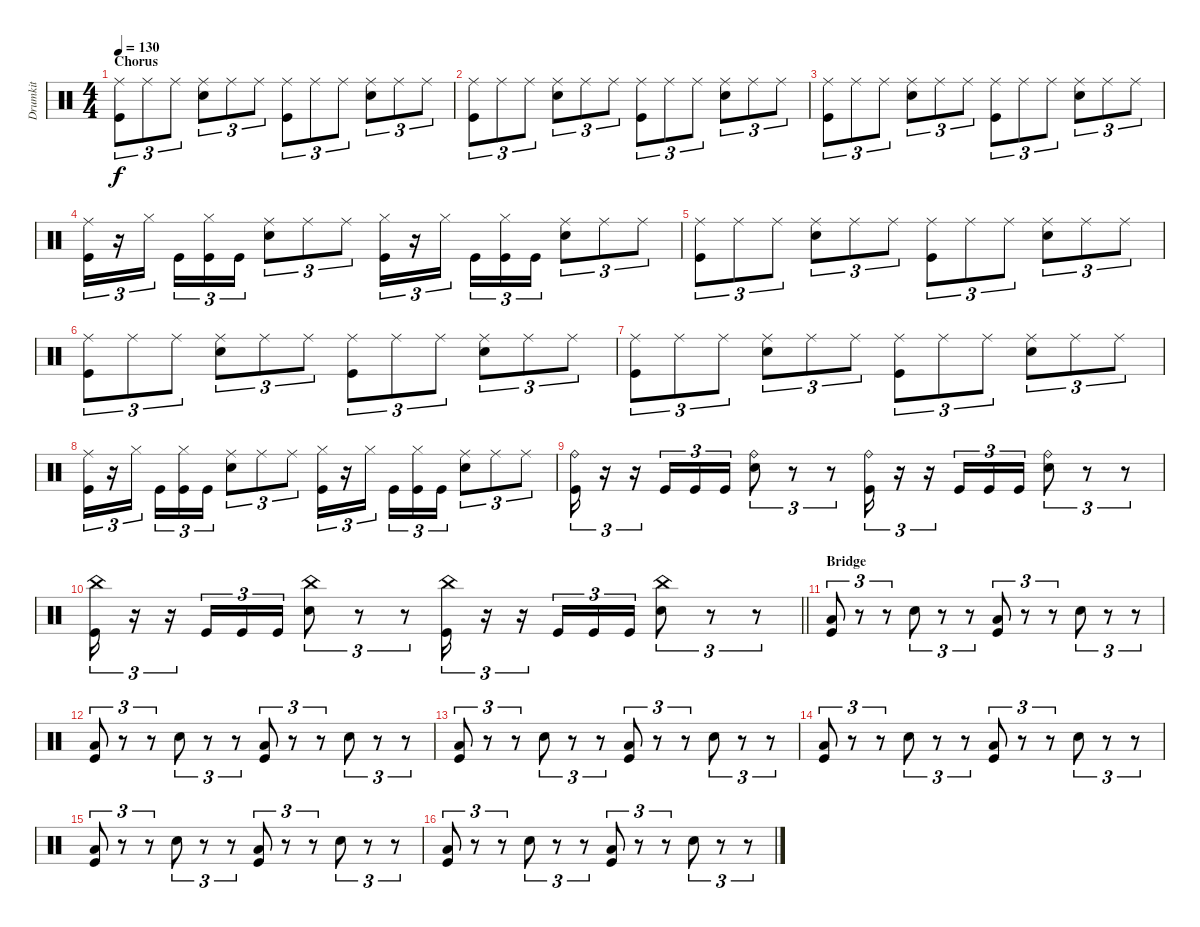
\track ("Drumkit" "Drumkit") {instrument percussion}
\staff {score}
\articulation defaults
\ts (4 4)
\section ("" "Chorus")
\tempo 130
\clef neutral
\ks c
("Kick (hit)" "Ride (middle)").8{tu (3 2) dy f} "Ride (middle)".8{tu (3 2)} "Ride (middle)".8{tu (3 2)} ("Snare (hit) 2" "Ride (middle)").8{tu (3 2)} "Ride (middle)".8{tu (3 2)} "Ride (middle)".8{tu (3 2)} ("Kick (hit)" "Ride (middle)").8{tu (3 2)} "Ride (middle)".8{tu (3 2)} "Ride (middle)".8{tu (3 2)} ("Snare (hit) 2" "Ride (middle)").8{tu (3 2)} "Ride (middle)".8{tu (3 2)} "Ride (middle)".8{tu (3 2)} |
("Kick (hit)" "Ride (middle)").8{tu (3 2)} "Ride (middle)".8{tu (3 2)} "Ride (middle)".8{tu (3 2)} ("Snare (hit) 2" "Ride (middle)").8{tu (3 2)} "Ride (middle)".8{tu (3 2)} "Ride (middle)".8{tu (3 2)} ("Kick (hit)" "Ride (middle)").8{tu (3 2)} "Ride (middle)".8{tu (3 2)} "Ride (middle)".8{tu (3 2)} ("Snare (hit) 2" "Ride (middle)").8{tu (3 2)} "Ride (middle)".8{tu (3 2)} "Ride (middle)".8{tu (3 2)} |
("Kick (hit)" "Ride (middle)").8{tu (3 2)} "Ride (middle)".8{tu (3 2)} "Ride (middle)".8{tu (3 2)} ("Snare (hit) 2" "Ride (middle)").8{tu (3 2)} "Ride (middle)".8{tu (3 2)} "Ride (middle)".8{tu (3 2)} ("Kick (hit)" "Ride (middle)").8{tu (3 2)} "Ride (middle)".8{tu (3 2)} "Ride (middle)".8{tu (3 2)} ("Snare (hit) 2" "Ride (middle)").8{tu (3 2)} "Ride (middle)".8{tu (3 2)} "Ride (middle)".8{tu (3 2)} |
("Kick (hit)" "Ride (middle)").16{tu (3 2)} r.16{tu (3 2)} "Hi-Hat (closed)".16{tu (3 2)} "Kick (hit)".16{tu (3 2)} ("Kick (hit)" "Hi-Hat (closed)").16{tu (3 2)} "Kick (hit)".16{tu (3 2)} ("Snare (hit) 2" "Ride (middle)").8{tu (3 2)} "Ride (middle)".8{tu (3 2)} "Ride (middle)".8{tu (3 2)} ("Kick (hit)" "Hi-Hat (closed)").16{tu (3 2)} r.16{tu (3 2)} "Hi-Hat (closed)".16{tu (3 2)} "Kick (hit)".16{tu (3 2)} ("Kick (hit)" "Hi-Hat (closed)").16{tu (3 2)} "Kick (hit)".16{tu (3 2)} ("Snare (hit) 2" "Ride (middle)").8{tu (3 2)} "Ride (middle)".8{tu (3 2)} "Ride (middle)".8{tu (3 2)} |
("Kick (hit)" "Ride (middle)").8{tu (3 2)} "Ride (middle)".8{tu (3 2)} "Ride (middle)".8{tu (3 2)} ("Snare (hit) 2" "Ride (middle)").8{tu (3 2)} "Ride (middle)".8{tu (3 2)} "Ride (middle)".8{tu (3 2)} ("Kick (hit)" "Ride (middle)").8{tu (3 2)} "Ride (middle)".8{tu (3 2)} "Ride (middle)".8{tu (3 2)} ("Snare (hit) 2" "Ride (middle)").8{tu (3 2)} "Ride (middle)".8{tu (3 2)} "Ride (middle)".8{tu (3 2)} |
("Kick (hit)" "Ride (middle)").8{tu (3 2)} "Ride (middle)".8{tu (3 2)} "Ride (middle)".8{tu (3 2)} ("Snare (hit) 2" "Ride (middle)").8{tu (3 2)} "Ride (middle)".8{tu (3 2)} "Ride (middle)".8{tu (3 2)} ("Kick (hit)" "Ride (middle)").8{tu (3 2)} "Ride (middle)".8{tu (3 2)} "Ride (middle)".8{tu (3 2)} ("Snare (hit) 2" "Ride (middle)").8{tu (3 2)} "Ride (middle)".8{tu (3 2)} "Ride (middle)".8{tu (3 2)} |
("Kick (hit)" "Ride (middle)").8{tu (3 2)} "Ride (middle)".8{tu (3 2)} "Ride (middle)".8{tu (3 2)} ("Snare (hit) 2" "Ride (middle)").8{tu (3 2)} "Ride (middle)".8{tu (3 2)} "Ride (middle)".8{tu (3 2)} ("Kick (hit)" "Ride (middle)").8{tu (3 2)} "Ride (middle)".8{tu (3 2)} "Ride (middle)".8{tu (3 2)} ("Snare (hit) 2" "Ride (middle)").8{tu (3 2)} "Ride (middle)".8{tu (3 2)} "Ride (middle)".8{tu (3 2)} |
("Kick (hit)" "Ride (middle)").16{tu (3 2)} r.16{tu (3 2)} "Hi-Hat (closed)".16{tu (3 2)} "Kick (hit)".16{tu (3 2)} ("Kick (hit)" "Hi-Hat (closed)").16{tu (3 2)} "Kick (hit)".16{tu (3 2)} ("Snare (hit) 2" "Ride (middle)").8{tu (3 2)} "Ride (middle)".8{tu (3 2)} "Ride (middle)".8{tu (3 2)} ("Kick (hit)" "Hi-Hat (closed)").16{tu (3 2)} r.16{tu (3 2)} "Hi-Hat (closed)".16{tu (3 2)} "Kick (hit)".16{tu (3 2)} ("Kick (hit)" "Hi-Hat (closed)").16{tu (3 2)} "Kick (hit)".16{tu (3 2)} ("Snare (hit) 2" "Ride (middle)").8{tu (3 2)} "Ride (middle)".8{tu (3 2)} "Ride (middle)".8{tu (3 2)} |
("Kick (hit)" "Ride (bell)").16{tu (3 2)} r.16{tu (3 2)} r.16{tu (3 2)} "Kick (hit)".16{tu (3 2)} "Kick (hit)".16{tu (3 2)} "Kick (hit)".16{tu (3 2)} ("Snare (hit) 2" "Ride (bell)").8{tu (3 2)} r.8{tu (3 2)} r.8{tu (3 2)} ("Kick (hit)" "Ride (bell)").16{tu (3 2)} r.16{tu (3 2)} r.16{tu (3 2)} "Kick (hit)".16{tu (3 2)} "Kick (hit)".16{tu (3 2)} "Kick (hit)".16{tu (3 2)} ("Snare (hit) 2" "Ride (bell)").8{tu (3 2)} r.8{tu (3 2)} r.8{tu (3 2)} |
\barLineRight lightlight
("Kick (hit)" "China (hit)").16{tu (3 2)} r.16{tu (3 2)} r.16{tu (3 2)} "Kick (hit)".16{tu (3 2)} "Kick (hit)".16{tu (3 2)} "Kick (hit)".16{tu (3 2)} ("Snare (hit) 2" "China (hit)").8{tu (3 2)} r.8{tu (3 2)} r.8{tu (3 2)} ("Kick (hit)" "China (hit)").16{tu (3 2)} r.16{tu (3 2)} r.16{tu (3 2)} "Kick (hit)".16{tu (3 2)} "Kick (hit)".16{tu (3 2)} "Kick (hit)".16{tu (3 2)} ("Snare (hit) 2" "China (hit)").8{tu (3 2)} r.8{tu (3 2)} r.8{tu (3 2)} |
\section ("" "Bridge")
("Low Floor Tom (hit)" "Kick (hit)").8{tu (3 2)} r.8{tu (3 2)} r.8{tu (3 2)} "Snare (hit) 2".8{tu (3 2)} r.8{tu (3 2)} r.8{tu (3 2)} ("Low Floor Tom (hit)" "Kick (hit)").8{tu (3 2)} r.8{tu (3 2)} r.8{tu (3 2)} "Snare (hit) 2".8{tu (3 2)} r.8{tu (3 2)} r.8{tu (3 2)} |
("Low Floor Tom (hit)" "Kick (hit)").8{tu (3 2)} r.8{tu (3 2)} r.8{tu (3 2)} "Snare (hit) 2".8{tu (3 2)} r.8{tu (3 2)} r.8{tu (3 2)} ("Low Floor Tom (hit)" "Kick (hit)").8{tu (3 2)} r.8{tu (3 2)} r.8{tu (3 2)} "Snare (hit) 2".8{tu (3 2)} r.8{tu (3 2)} r.8{tu (3 2)} |
("Low Floor Tom (hit)" "Kick (hit)").8{tu (3 2)} r.8{tu (3 2)} r.8{tu (3 2)} "Snare (hit) 2".8{tu (3 2)} r.8{tu (3 2)} r.8{tu (3 2)} ("Low Floor Tom (hit)" "Kick (hit)").8{tu (3 2)} r.8{tu (3 2)} r.8{tu (3 2)} "Snare (hit) 2".8{tu (3 2)} r.8{tu (3 2)} r.8{tu (3 2)} |
("Low Floor Tom (hit)" "Kick (hit)").8{tu (3 2)} r.8{tu (3 2)} r.8{tu (3 2)} "Snare (hit) 2".8{tu (3 2)} r.8{tu (3 2)} r.8{tu (3 2)} ("Low Floor Tom (hit)" "Kick (hit)").8{tu (3 2)} r.8{tu (3 2)} r.8{tu (3 2)} "Snare (hit) 2".8{tu (3 2)} r.8{tu (3 2)} r.8{tu (3 2)} |
("Low Floor Tom (hit)" "Kick (hit)").8{tu (3 2)} r.8{tu (3 2)} r.8{tu (3 2)} "Snare (hit) 2".8{tu (3 2)} r.8{tu (3 2)} r.8{tu (3 2)} ("Low Floor Tom (hit)" "Kick (hit)").8{tu (3 2)} r.8{tu (3 2)} r.8{tu (3 2)} "Snare (hit) 2".8{tu (3 2)} r.8{tu (3 2)} r.8{tu (3 2)} |
("Low Floor Tom (hit)" "Kick (hit)").8{tu (3 2)} r.8{tu (3 2)} r.8{tu (3 2)} "Snare (hit) 2".8{tu (3 2)} r.8{tu (3 2)} r.8{tu (3 2)} ("Low Floor Tom (hit)" "Kick (hit)").8{tu (3 2)} r.8{tu (3 2)} r.8{tu (3 2)} "Snare (hit) 2".8{tu (3 2)} r.8{tu (3 2)} r.8{tu (3 2)}
